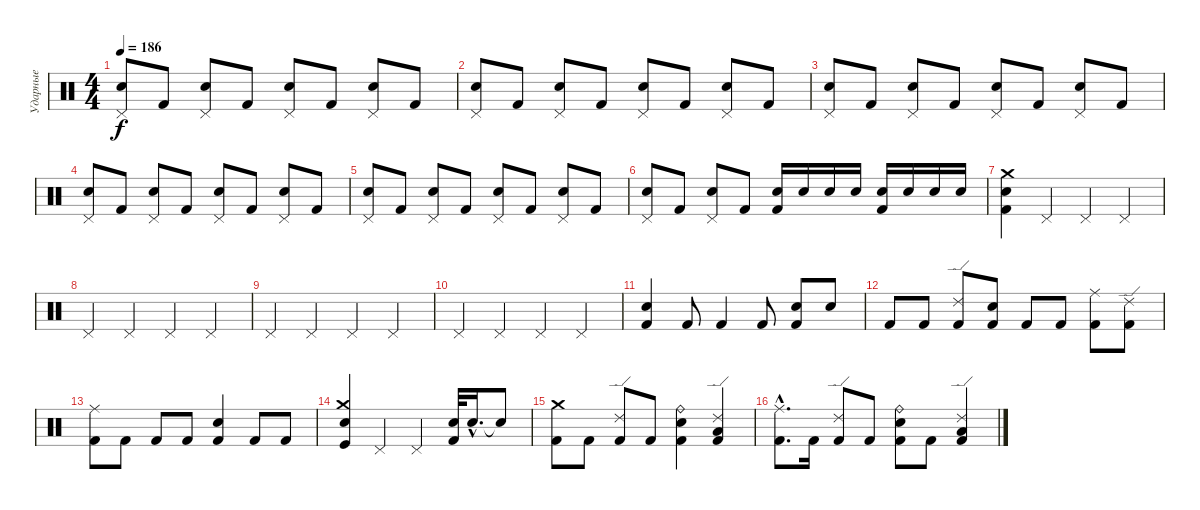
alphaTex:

\track ("Ударные" "Ударные") {instrument percussion}
\staff {score}
\articulation defaults
\ts (4 4)
\tempo 186
\clef neutral
\ks c
("Pedal Hi-Hat (hit)" "Snare (hit) 2").8{dy f} "Kick (hit) 2".8 ("Pedal Hi-Hat (hit)" "Snare (hit) 2").8 "Kick (hit) 2".8 ("Pedal Hi-Hat (hit)" "Snare (hit) 2").8 "Kick (hit) 2".8 ("Pedal Hi-Hat (hit)" "Snare (hit) 2").8 "Kick (hit) 2".8 |
("Pedal Hi-Hat (hit)" "Snare (hit) 2").8 "Kick (hit) 2".8 ("Pedal Hi-Hat (hit)" "Snare (hit) 2").8 "Kick (hit) 2".8 ("Pedal Hi-Hat (hit)" "Snare (hit) 2").8 "Kick (hit) 2".8 ("Pedal Hi-Hat (hit)" "Snare (hit) 2").8 "Kick (hit) 2".8 |
("Pedal Hi-Hat (hit)" "Snare (hit) 2").8 "Kick (hit) 2".8 ("Pedal Hi-Hat (hit)" "Snare (hit) 2").8 "Kick (hit) 2".8 ("Pedal Hi-Hat (hit)" "Snare (hit) 2").8 "Kick (hit) 2".8 ("Pedal Hi-Hat (hit)" "Snare (hit) 2").8 "Kick (hit) 2".8 |
("Pedal Hi-Hat (hit)" "Snare (hit) 2").8 "Kick (hit) 2".8 ("Pedal Hi-Hat (hit)" "Snare (hit) 2").8 "Kick (hit) 2".8 ("Pedal Hi-Hat (hit)" "Snare (hit) 2").8 "Kick (hit) 2".8 ("Pedal Hi-Hat (hit)" "Snare (hit) 2").8 "Kick (hit) 2".8 |
("Pedal Hi-Hat (hit)" "Snare (hit) 2").8 "Kick (hit) 2".8 ("Pedal Hi-Hat (hit)" "Snare (hit) 2").8 "Kick (hit) 2".8 ("Pedal Hi-Hat (hit)" "Snare (hit) 2").8 "Kick (hit) 2".8 ("Pedal Hi-Hat (hit)" "Snare (hit) 2").8 "Kick (hit) 2".8 |
("Pedal Hi-Hat (hit)" "Snare (hit) 2").8 "Kick (hit) 2".8 ("Pedal Hi-Hat (hit)" "Snare (hit) 2").8 "Kick (hit) 2".8 ("Snare (hit) 2" "Kick (hit) 2").16 "Snare (hit) 2".16 "Snare (hit) 2".16 "Snare (hit) 2".16 ("Snare (hit) 2" "Kick (hit) 2").16 "Snare (hit) 2".16 "Snare (hit) 2".16 "Snare (hit) 2".16 |
("Crash medium (hit)" "Snare (hit) 2" "Kick (hit) 2").4 "Pedal Hi-Hat (hit)".4 "Pedal Hi-Hat (hit)".4 "Pedal Hi-Hat (hit)".4 |
"Pedal Hi-Hat (hit)".4 "Pedal Hi-Hat (hit)".4 "Pedal Hi-Hat (hit)".4 "Pedal Hi-Hat (hit)".4 |
"Pedal Hi-Hat (hit)".4 "Pedal Hi-Hat (hit)".4 "Pedal Hi-Hat (hit)".4 "Pedal Hi-Hat (hit)".4 |
"Pedal Hi-Hat (hit)".4 "Pedal Hi-Hat (hit)".4 "Pedal Hi-Hat (hit)".4 "Pedal Hi-Hat (hit)".4 |
("Snare (hit) 2" "Kick (hit) 2").4 "Kick (hit) 2".8 "Kick (hit) 2".4 "Kick (hit) 2".8 ("Snare (hit) 2" "Kick (hit) 2").8 "Snare (hit) 2".8 |
"Kick (hit) 2".8 "Kick (hit) 2".8 ("Ride (edge) 2" "Kick (hit) 2").8 ("Snare (hit) 2" "Kick (hit) 2").8 "Kick (hit) 2".8 "Kick (hit) 2".8 ("Ride (middle)" "Kick (hit) 2").8 ("Ride (edge) 2" "Kick (hit) 2").8 |
("Ride (middle)" "Kick (hit) 2").8 "Kick (hit) 2".8 "Kick (hit) 2".8 "Kick (hit) 2".8 ("Snare (hit) 2" "Kick (hit) 2").4 "Kick (hit) 2".8 "Kick (hit) 2".8 |
("Crash medium (hit)" "Snare (hit) 2" "Kick (hit)").4 "Pedal Hi-Hat (hit)".4 "Pedal Hi-Hat (hit)".4 ("Snare (hit) 2" "Kick (hit) 2").32 "Snare (hit) 2"{hac}.16{d} "Snare (hit)"{t}.8 |
("Crash medium (hit)" "Kick (hit) 2").8 "Kick (hit) 2".8 ("Ride (edge) 2" "Kick (hit) 2").8 "Kick (hit) 2".8 ("Ride (bell)" "Snare (hit) 2" "Kick (hit) 2").4 ("Ride (edge) 2" "Low Tom (hit)" "Kick (hit) 2").4 |
("Ride (middle)"{hac} "Kick (hit) 2"{hac}).8{d} "Kick (hit) 2".16 ("Ride (edge) 2" "Kick (hit) 2").8 "Kick (hit) 2".8 ("Ride (bell)" "Snare (hit) 2" "Kick (hit) 2").8 "Kick (hit) 2".8 ("Ride (edge) 2" "Low Tom (hit)" "Kick (hit) 2").4
